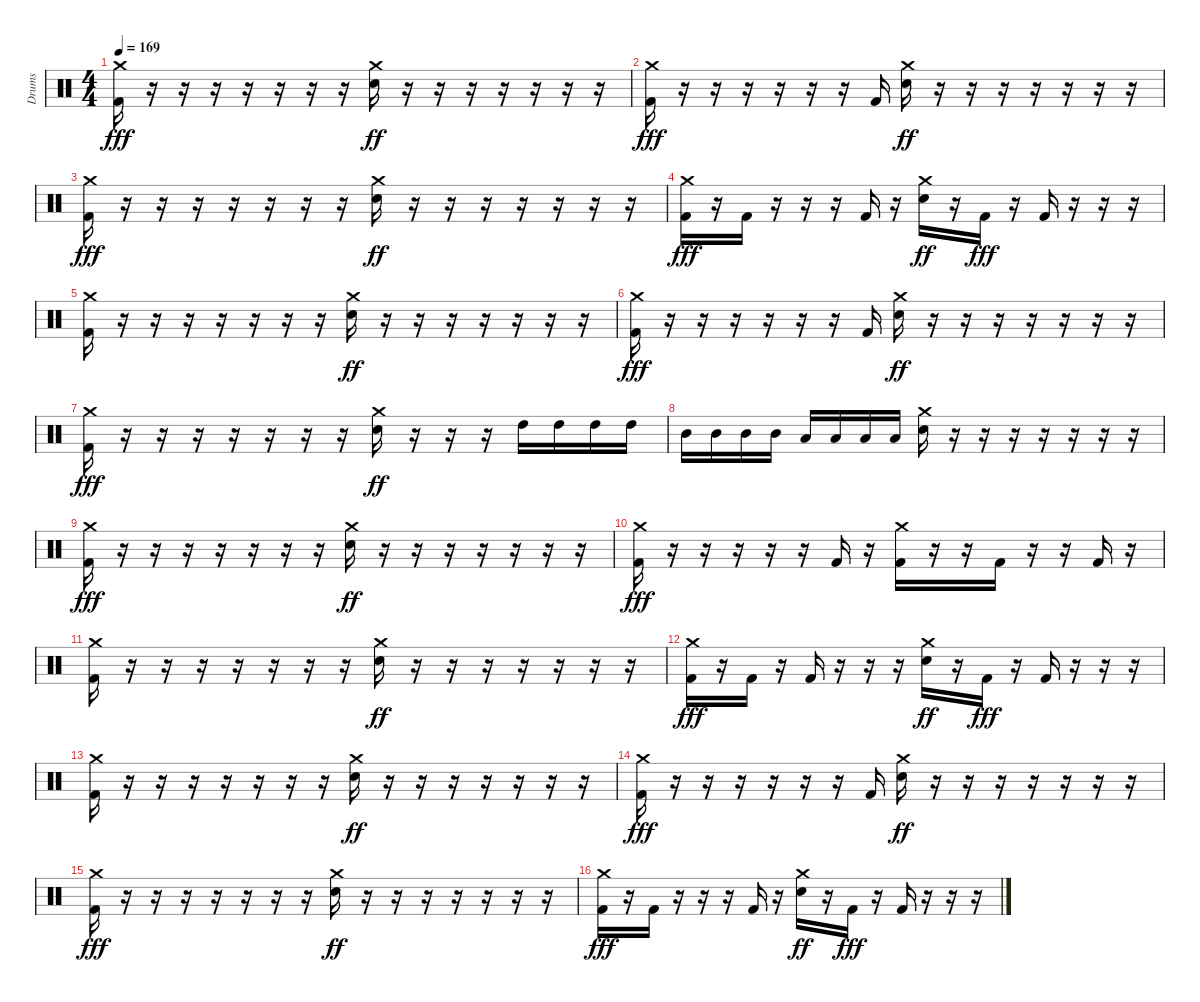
\track ("Drums" "Drums") {instrument percussion}
\staff {score}
\articulation defaults
\ts (4 4)
\tempo 169
\clef neutral
\ks c
("Crash medium (hit)" "Kick (hit) 2").16{dy fff} r.16 r.16 r.16 r.16 r.16 r.16 r.16 ("Crash medium (hit)" "Electric Snare (hit)").16{dy ff} r.16 r.16 r.16 r.16 r.16 r.16 r.16 |
("Crash medium (hit)" "Kick (hit) 2").16{dy fff} r.16 r.16 r.16 r.16 r.16 r.16 "Kick (hit) 2".16 ("Crash medium (hit)" "Electric Snare (hit)").16{dy ff} r.16 r.16 r.16 r.16 r.16 r.16 r.16 |
("Crash medium (hit)" "Kick (hit) 2").16{dy fff} r.16 r.16 r.16 r.16 r.16 r.16 r.16 ("Crash medium (hit)" "Electric Snare (hit)").16{dy ff} r.16 r.16 r.16 r.16 r.16 r.16 r.16 |
("Crash medium (hit)" "Kick (hit) 2").16{dy fff} r.16 "Kick (hit) 2".16 r.16 r.16 r.16 "Kick (hit) 2".16 r.16 ("Crash medium (hit)" "Electric Snare (hit)").16{dy ff} r.16 "Kick (hit) 2".16{dy fff} r.16 "Kick (hit) 2".16 r.16 r.16 r.16 |
("Crash medium (hit)" "Kick (hit) 2").16 r.16 r.16 r.16 r.16 r.16 r.16 r.16 ("Crash medium (hit)" "Electric Snare (hit)").16{dy ff} r.16 r.16 r.16 r.16 r.16 r.16 r.16 |
("Crash medium (hit)" "Kick (hit) 2").16{dy fff} r.16 r.16 r.16 r.16 r.16 r.16 "Kick (hit) 2".16 ("Crash medium (hit)" "Electric Snare (hit)").16{dy ff} r.16 r.16 r.16 r.16 r.16 r.16 r.16 |
("Crash medium (hit)" "Kick (hit) 2").16{dy fff} r.16 r.16 r.16 r.16 r.16 r.16 r.16 ("Crash medium (hit)" "Electric Snare (hit)").16{dy ff} r.16 r.16 r.16 "High Tom (hit)".16 "High Tom (hit)".16 "High Tom (hit)".16 "High Tom (hit)".16 |
"Mid Tom (hit)".16 "Mid Tom (hit)".16 "Mid Tom (hit)".16 "Mid Tom (hit)".16 "Low Tom (hit)".16 "Low Tom (hit)".16 "Low Tom (hit)".16 "Low Tom (hit)".16 ("Crash medium (hit)" "Electric Snare (hit)").16 r.16 r.16 r.16 r.16 r.16 r.16 r.16 |
("Crash medium (hit)" "Kick (hit) 2").16{dy fff} r.16 r.16 r.16 r.16 r.16 r.16 r.16 ("Crash medium (hit)" "Electric Snare (hit)").16{dy ff} r.16 r.16 r.16 r.16 r.16 r.16 r.16 |
("Crash medium (hit)" "Kick (hit) 2").16{dy fff} r.16 r.16 r.16 r.16 r.16 "Kick (hit) 2".16 r.16 ("Crash medium (hit)" "Kick (hit) 2").16 r.16 r.16 "Kick (hit) 2".16 r.16 r.16 "Kick (hit) 2".16 r.16 |
("Crash medium (hit)" "Kick (hit) 2").16 r.16 r.16 r.16 r.16 r.16 r.16 r.16 ("Crash medium (hit)" "Electric Snare (hit)").16{dy ff} r.16 r.16 r.16 r.16 r.16 r.16 r.16 |
("Crash medium (hit)" "Kick (hit) 2").16{dy fff} r.16 "Kick (hit) 2".16 r.16 "Kick (hit) 2".16 r.16 r.16 r.16 ("Crash medium (hit)" "Electric Snare (hit)").16{dy ff} r.16 "Kick (hit) 2".16{dy fff} r.16 "Kick (hit) 2".16 r.16 r.16 r.16 |
("Crash medium (hit)" "Kick (hit) 2").16 r.16 r.16 r.16 r.16 r.16 r.16 r.16 ("Crash medium (hit)" "Electric Snare (hit)").16{dy ff} r.16 r.16 r.16 r.16 r.16 r.16 r.16 |
("Crash medium (hit)" "Kick (hit) 2").16{dy fff} r.16 r.16 r.16 r.16 r.16 r.16 "Kick (hit) 2".16 ("Crash medium (hit)" "Electric Snare (hit)").16{dy ff} r.16 r.16 r.16 r.16 r.16 r.16 r.16 |
("Crash medium (hit)" "Kick (hit) 2").16{dy fff} r.16 r.16 r.16 r.16 r.16 r.16 r.16 ("Crash medium (hit)" "Electric Snare (hit)").16{dy ff} r.16 r.16 r.16 r.16 r.16 r.16 r.16 |
("Crash medium (hit)" "Kick (hit) 2").16{dy fff} r.16 "Kick (hit) 2".16 r.16 r.16 r.16 "Kick (hit) 2".16 r.16 ("Crash medium (hit)" "Electric Snare (hit)").16{dy ff} r.16 "Kick (hit) 2".16{dy fff} r.16 "Kick (hit) 2".16 r.16 r.16 r.16
